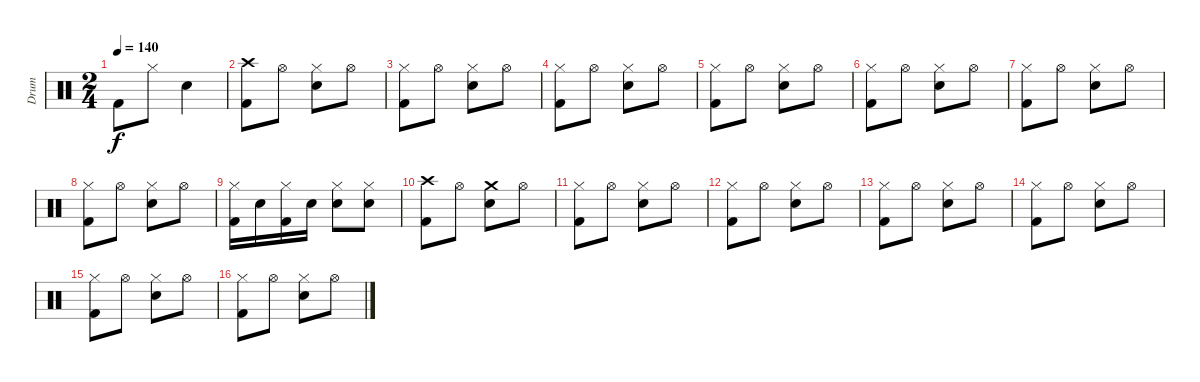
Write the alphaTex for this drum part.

\track ("Drum" "Drum") {instrument percussion}
\staff {score}
\articulation defaults
\ts (2 4)
\tempo 140
\clef neutral
\ks c "Kick (hit) 2".8{dy f} "Hi-Hat (closed)".8 "Hand Clap (hit)".4
|
("Crash high (hit)" "Kick (hit) 2").8 "Hi-Hat (open)".8 ("Hi-Hat (closed)" "Electric Snare (hit)").8 "Hi-Hat (open)".8 |
("Kick (hit) 2" "Hi-Hat (closed)").8 "Hi-Hat (open)".8 ("Hi-Hat (closed)" "Electric Snare (hit)").8 "Hi-Hat (open)".8 |
("Hi-Hat (closed)" "Kick (hit) 2").8 "Hi-Hat (open)".8 ("Hi-Hat (closed)" "Electric Snare (hit)").8 "Hi-Hat (open)".8 |
("Hi-Hat (closed)" "Kick (hit) 2").8 "Hi-Hat (open)".8 ("Hi-Hat (closed)" "Electric Snare (hit)").8 "Hi-Hat (open)".8 |
("Kick (hit) 2" "Hi-Hat (closed)").8 "Hi-Hat (open)".8 ("Hi-Hat (closed)" "Electric Snare (hit)").8 "Hi-Hat (open)".8 |
("Hi-Hat (closed)" "Kick (hit) 2").8 "Hi-Hat (open)".8 ("Hi-Hat (closed)" "Electric Snare (hit)").8 "Hi-Hat (open)".8 |
("Hi-Hat (closed)" "Kick (hit) 2").8 "Hi-Hat (open)".8 ("Hi-Hat (closed)" "Electric Snare (hit)").8 "Hi-Hat (open)".8 |
("Hi-Hat (closed)" "Kick (hit) 2").16 "Electric Snare (hit)".16 ("Hi-Hat (closed)" "Kick (hit) 2").16 "Electric Snare (hit)".16 ("Electric Snare (hit)" "Hi-Hat (closed)").8 ("Electric Snare (hit)" "Hi-Hat (closed)").8 |
("Crash high (hit)" "Kick (hit) 2").8 "Hi-Hat (open)".8 ("Electric Snare (hit)" "Crash medium (hit)").8 "Hi-Hat (open)".8 |
("Kick (hit) 2" "Hi-Hat (closed)").8 "Hi-Hat (open)".8 ("Hi-Hat (closed)" "Electric Snare (hit)").8 "Hi-Hat (open)".8 |
("Kick (hit) 2" "Hi-Hat (closed)").8 "Hi-Hat (open)".8 ("Hi-Hat (closed)" "Electric Snare (hit)").8 "Hi-Hat (open)".8 |
("Kick (hit) 2" "Hi-Hat (closed)").8 "Hi-Hat (open)".8 ("Hi-Hat (closed)" "Electric Snare (hit)").8 "Hi-Hat (open)".8 |
("Kick (hit) 2" "Hi-Hat (closed)").8 "Hi-Hat (open)".8 ("Hi-Hat (closed)" "Electric Snare (hit)").8 "Hi-Hat (open)".8 |
("Kick (hit) 2" "Hi-Hat (closed)").8 "Hi-Hat (open)".8 ("Hi-Hat (closed)" "Electric Snare (hit)").8 "Hi-Hat (open)".8 |
("Kick (hit) 2" "Hi-Hat (closed)").8 "Hi-Hat (open)".8 ("Hi-Hat (closed)" "Electric Snare (hit)").8 "Hi-Hat (open)".8
